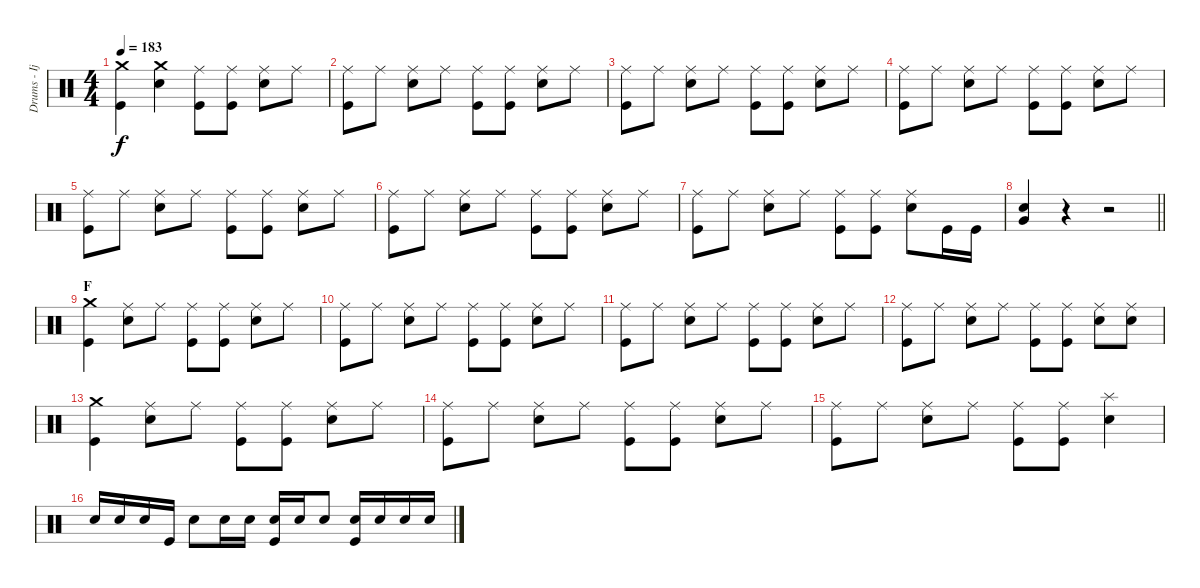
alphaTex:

\track ("Drums - Ijichi" "Drums - Ij") {instrument percussion}
\staff {score}
\articulation defaults
\ts (4 4)
\tempo 183
\clef neutral
\ks c
("Crash medium (hit)" "Kick (hit)").4{dy f} ("Crash medium (hit)" "Electric Snare (hit)").4 ("Ride (middle)" "Kick (hit)").8 ("Ride (middle)" "Kick (hit)").8 ("Ride (middle)" "Electric Snare (hit)").8 "Ride (middle)".8 |
("Ride (middle)" "Kick (hit)").8 "Ride (middle)".8 ("Ride (middle)" "Electric Snare (hit)").8 "Ride (middle)".8 ("Ride (middle)" "Kick (hit)").8 ("Ride (middle)" "Kick (hit)").8 ("Ride (middle)" "Electric Snare (hit)").8 "Ride (middle)".8 |
("Ride (middle)" "Kick (hit)").8 "Ride (middle)".8 ("Ride (middle)" "Electric Snare (hit)").8 "Ride (middle)".8 ("Ride (middle)" "Kick (hit)").8 ("Ride (middle)" "Kick (hit)").8 ("Ride (middle)" "Electric Snare (hit)").8 "Ride (middle)".8 |
("Ride (middle)" "Kick (hit)").8 "Ride (middle)".8 ("Ride (middle)" "Electric Snare (hit)").8 "Ride (middle)".8 ("Ride (middle)" "Kick (hit)").8 ("Ride (middle)" "Kick (hit)").8 ("Ride (middle)" "Electric Snare (hit)").8 "Ride (middle)".8 |
("Ride (middle)" "Kick (hit)").8 "Ride (middle)".8 ("Ride (middle)" "Electric Snare (hit)").8 "Ride (middle)".8 ("Ride (middle)" "Kick (hit)").8 ("Ride (middle)" "Kick (hit)").8 ("Ride (middle)" "Electric Snare (hit)").8 "Ride (middle)".8 |
("Ride (middle)" "Kick (hit)").8 "Ride (middle)".8 ("Ride (middle)" "Electric Snare (hit)").8 "Ride (middle)".8 ("Ride (middle)" "Kick (hit)").8 ("Ride (middle)" "Kick (hit)").8 ("Ride (middle)" "Electric Snare (hit)").8 "Ride (middle)".8 |
("Ride (middle)" "Kick (hit)").8 "Ride (middle)".8 ("Ride (middle)" "Electric Snare (hit)").8 "Ride (middle)".8 ("Ride (middle)" "Kick (hit)").8 ("Ride (middle)" "Kick (hit)").8 ("Ride (middle)" "Electric Snare (hit)").8 "Kick (hit)".16 "Kick (hit)".16 |
\barLineRight lightlight
("Electric Snare (hit)" "Very Low Tom (hit)").4 r.4 r.2 |
\section ("" "F")
("Crash medium (hit)" "Kick (hit)").4 ("Ride (middle)" "Electric Snare (hit)").8 "Ride (middle)".8 ("Ride (middle)" "Kick (hit)").8 ("Ride (middle)" "Kick (hit)").8 ("Ride (middle)" "Electric Snare (hit)").8 "Ride (middle)".8 |
("Ride (middle)" "Kick (hit)").8 "Ride (middle)".8 ("Ride (middle)" "Electric Snare (hit)").8 "Ride (middle)".8 ("Ride (middle)" "Kick (hit)").8 ("Ride (middle)" "Kick (hit)").8 ("Ride (middle)" "Electric Snare (hit)").8 "Ride (middle)".8 |
("Ride (middle)" "Kick (hit)").8 "Ride (middle)".8 ("Ride (middle)" "Electric Snare (hit)").8 "Ride (middle)".8 ("Ride (middle)" "Kick (hit)").8 ("Ride (middle)" "Kick (hit)").8 ("Ride (middle)" "Electric Snare (hit)").8 "Ride (middle)".8 |
("Ride (middle)" "Kick (hit)").8 "Ride (middle)".8 ("Ride (middle)" "Electric Snare (hit)").8 "Ride (middle)".8 ("Ride (middle)" "Kick (hit)").8 ("Ride (middle)" "Kick (hit)").8 ("Ride (middle)" "Electric Snare (hit)").8 ("Ride (middle)" "Electric Snare (hit)").8 |
("Crash medium (hit)" "Kick (hit)").4 ("Ride (middle)" "Electric Snare (hit)").8 "Ride (middle)".8 ("Ride (middle)" "Kick (hit)").8 ("Ride (middle)" "Kick (hit)").8 ("Ride (middle)" "Electric Snare (hit)").8 "Ride (middle)".8 |
("Ride (middle)" "Kick (hit)").8 "Ride (middle)".8 ("Ride (middle)" "Electric Snare (hit)").8 "Ride (middle)".8 ("Ride (middle)" "Kick (hit)").8 ("Ride (middle)" "Kick (hit)").8 ("Ride (middle)" "Electric Snare (hit)").8 "Ride (middle)".8 |
("Ride (middle)" "Kick (hit)").8 "Ride (middle)".8 ("Ride (middle)" "Electric Snare (hit)").8 "Ride (middle)".8 ("Ride (middle)" "Kick (hit)").8 ("Ride (middle)" "Kick (hit)").8 ("Splash (hit)" "Electric Snare (hit)").4 |
"Electric Snare (hit)".16 "Electric Snare (hit)".16 "Electric Snare (hit)".16 "Kick (hit)".16 "Electric Snare (hit)".8 "Electric Snare (hit)".16 "Electric Snare (hit)".16 ("Electric Snare (hit)" "Kick (hit)").16 "Electric Snare (hit)".16 "Electric Snare (hit)".8 ("Electric Snare (hit)" "Kick (hit)").16 "Electric Snare (hit)".16 "Electric Snare (hit)".16 "Electric Snare (hit)".16
